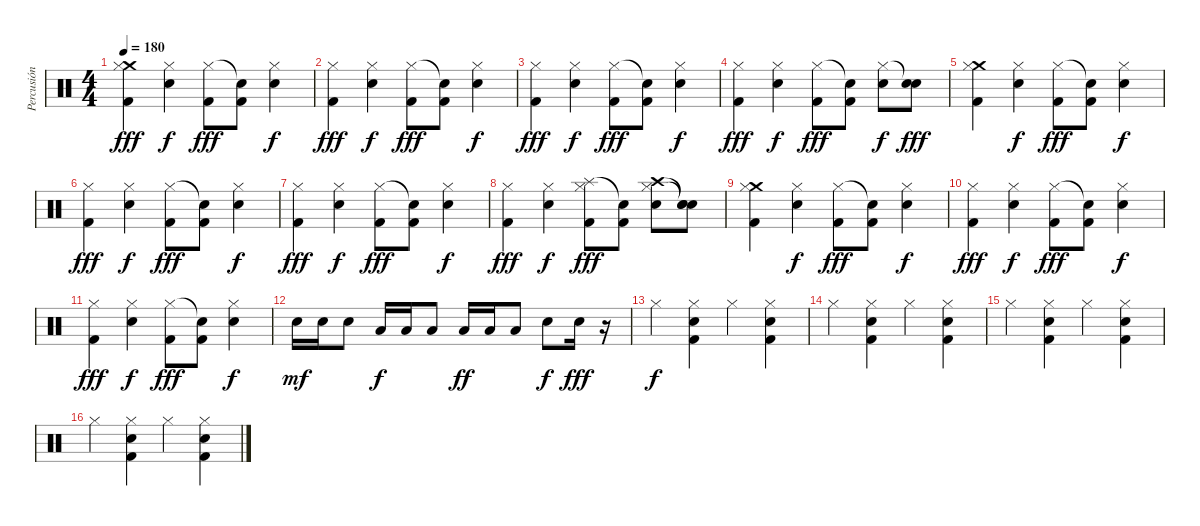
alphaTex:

\track ("Percusión" "Percusión") {instrument percussion}
\staff {score}
\articulation defaults
\ts (4 4)
\tempo 180
\clef neutral
\ks c
("Crash medium (hit)" "Hi-Hat (closed)" "Kick (hit) 2").4{dy fff} ("Snare (hit) 2" "Hi-Hat (closed)").4{dy f} ("Hi-Hat (closed)" "Kick (hit) 2").8{dy fff} ("Snare (hit)"{t} "Kick (hit) 2").8 ("Snare (hit) 2" "Hi-Hat (closed)").4{dy f} |
("Hi-Hat (closed)" "Kick (hit) 2").4{dy fff} ("Snare (hit) 2" "Hi-Hat (closed)").4{dy f} ("Hi-Hat (closed)" "Kick (hit) 2").8{dy fff} ("Snare (hit)"{t} "Kick (hit) 2").8 ("Snare (hit) 2" "Hi-Hat (closed)").4{dy f} |
("Hi-Hat (closed)" "Kick (hit) 2").4{dy fff} ("Snare (hit) 2" "Hi-Hat (closed)").4{dy f} ("Hi-Hat (closed)" "Kick (hit) 2").8{dy fff} ("Snare (hit)"{t} "Kick (hit) 2").8 ("Snare (hit) 2" "Hi-Hat (closed)").4{dy f} |
("Hi-Hat (closed)" "Kick (hit) 2").4{dy fff} ("Snare (hit) 2" "Hi-Hat (closed)").4{dy f} ("Hi-Hat (closed)" "Kick (hit) 2").8{dy fff} ("Snare (hit)"{t} "Kick (hit) 2").8 ("Snare (hit) 2" "Hi-Hat (closed)").8{dy f} ("Snare (hit) 2" "Snare (hit)"{t}).8{dy fff} |
("Crash medium (hit)" "Hi-Hat (closed)" "Kick (hit) 2").4 ("Snare (hit) 2" "Hi-Hat (closed)").4{dy f} ("Hi-Hat (closed)" "Kick (hit) 2").8{dy fff} ("Snare (hit)"{t} "Kick (hit) 2").8 ("Snare (hit) 2" "Hi-Hat (closed)").4{dy f} |
("Hi-Hat (closed)" "Kick (hit) 2").4{dy fff} ("Snare (hit) 2" "Hi-Hat (closed)").4{dy f} ("Hi-Hat (closed)" "Kick (hit) 2").8{dy fff} ("Snare (hit)"{t} "Kick (hit) 2").8 ("Snare (hit) 2" "Hi-Hat (closed)").4{dy f} |
("Hi-Hat (closed)" "Kick (hit) 2").4{dy fff} ("Snare (hit) 2" "Hi-Hat (closed)").4{dy f} ("Hi-Hat (closed)" "Kick (hit) 2").8{dy fff} ("Snare (hit)"{t} "Kick (hit) 2").8 ("Snare (hit) 2" "Hi-Hat (closed)").4{dy f} |
("Hi-Hat (closed)" "Kick (hit) 2").4{dy fff} ("Snare (hit) 2" "Hi-Hat (closed)").4{dy f} ("Splash (hit)" "Hi-Hat (closed)" "Kick (hit) 2").8{dy fff} ("Snare (hit)"{t} "Kick (hit) 2").8 ("Crash high (hit)" "Snare (hit) 2" "Hi-Hat (closed)").8 ("Snare (hit)"{t} "Snare (hit) 2" "Snare (hit)"{t}).8 |
("Crash medium (hit)" "Hi-Hat (closed)" "Kick (hit) 2").4 ("Snare (hit) 2" "Hi-Hat (closed)").4{dy f} ("Hi-Hat (closed)" "Kick (hit) 2").8{dy fff} ("Snare (hit)"{t} "Kick (hit) 2").8 ("Snare (hit) 2" "Hi-Hat (closed)").4{dy f} |
("Hi-Hat (closed)" "Kick (hit) 2").4{dy fff} ("Snare (hit) 2" "Hi-Hat (closed)").4{dy f} ("Hi-Hat (closed)" "Kick (hit) 2").8{dy fff} ("Snare (hit)"{t} "Kick (hit) 2").8 ("Snare (hit) 2" "Hi-Hat (closed)").4{dy f} |
("Hi-Hat (closed)" "Kick (hit) 2").4{dy fff} ("Snare (hit) 2" "Hi-Hat (closed)").4{dy f} ("Hi-Hat (closed)" "Kick (hit) 2").8{dy fff} ("Snare (hit)"{t} "Kick (hit) 2").8 ("Snare (hit) 2" "Hi-Hat (closed)").4{dy f} |
"Snare (hit) 2".16{dy mf} "Snare (hit) 2".16 "Snare (hit) 2".8 "Low Tom (hit)".16{dy f} "Low Tom (hit)".16 "Low Tom (hit)".8 "Low Floor Tom (hit)".16{dy ff} "Low Floor Tom (hit)".16 "Low Floor Tom (hit)".8 "Electric Snare (hit)".8{dy f} "Electric Snare (hit)".16{dy fff} r.16 |
"Hi-Hat (closed)".4{dy f} ("Snare (hit) 2" "Hi-Hat (closed)" "Kick (hit) 2").4 "Hi-Hat (closed)".4 ("Snare (hit) 2" "Hi-Hat (closed)" "Kick (hit) 2").4 |
"Hi-Hat (closed)".4 ("Snare (hit) 2" "Hi-Hat (closed)" "Kick (hit) 2").4 "Hi-Hat (closed)".4 ("Snare (hit) 2" "Hi-Hat (closed)" "Kick (hit) 2").4 |
"Hi-Hat (closed)".4 ("Snare (hit) 2" "Hi-Hat (closed)" "Kick (hit) 2").4 "Hi-Hat (closed)".4 ("Snare (hit) 2" "Hi-Hat (closed)" "Kick (hit) 2").4 |
"Hi-Hat (closed)".4 ("Snare (hit) 2" "Hi-Hat (closed)" "Kick (hit) 2").4 "Hi-Hat (closed)".4 ("Snare (hit) 2" "Hi-Hat (closed)" "Kick (hit) 2").4
